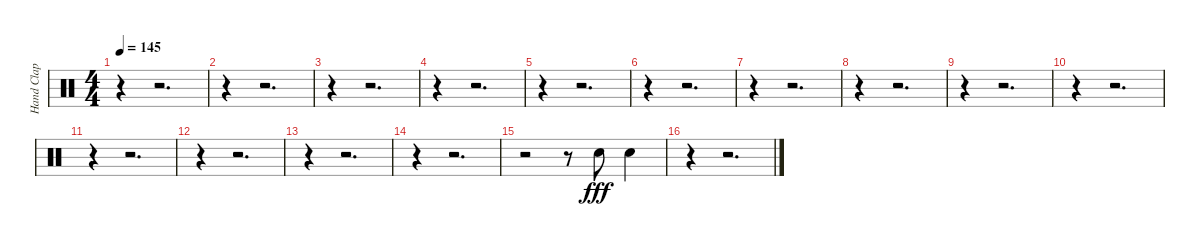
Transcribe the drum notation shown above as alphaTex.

\track ("Hand Clap" "Hand Clap") {instrument percussion}
\staff {score}
\articulation defaults
\ts (4 4)
\tempo 145
\clef neutral
\ks c
r.4{dy fff} r.2{d} |
r.4 r.2{d} |
r.4 r.2{d} |
r.4 r.2{d} |
r.4 r.2{d} |
r.4 r.2{d} |
r.4 r.2{d} |
r.4 r.2{d} |
r.4 r.2{d} |
r.4 r.2{d} |
r.4 r.2{d} |
r.4 r.2{d} |
r.4 r.2{d} |
r.4 r.2{d} |
r.2 r.8 "Hand Clap (hit)".8 "Hand Clap (hit)".4 |
r.4 r.2{d}
